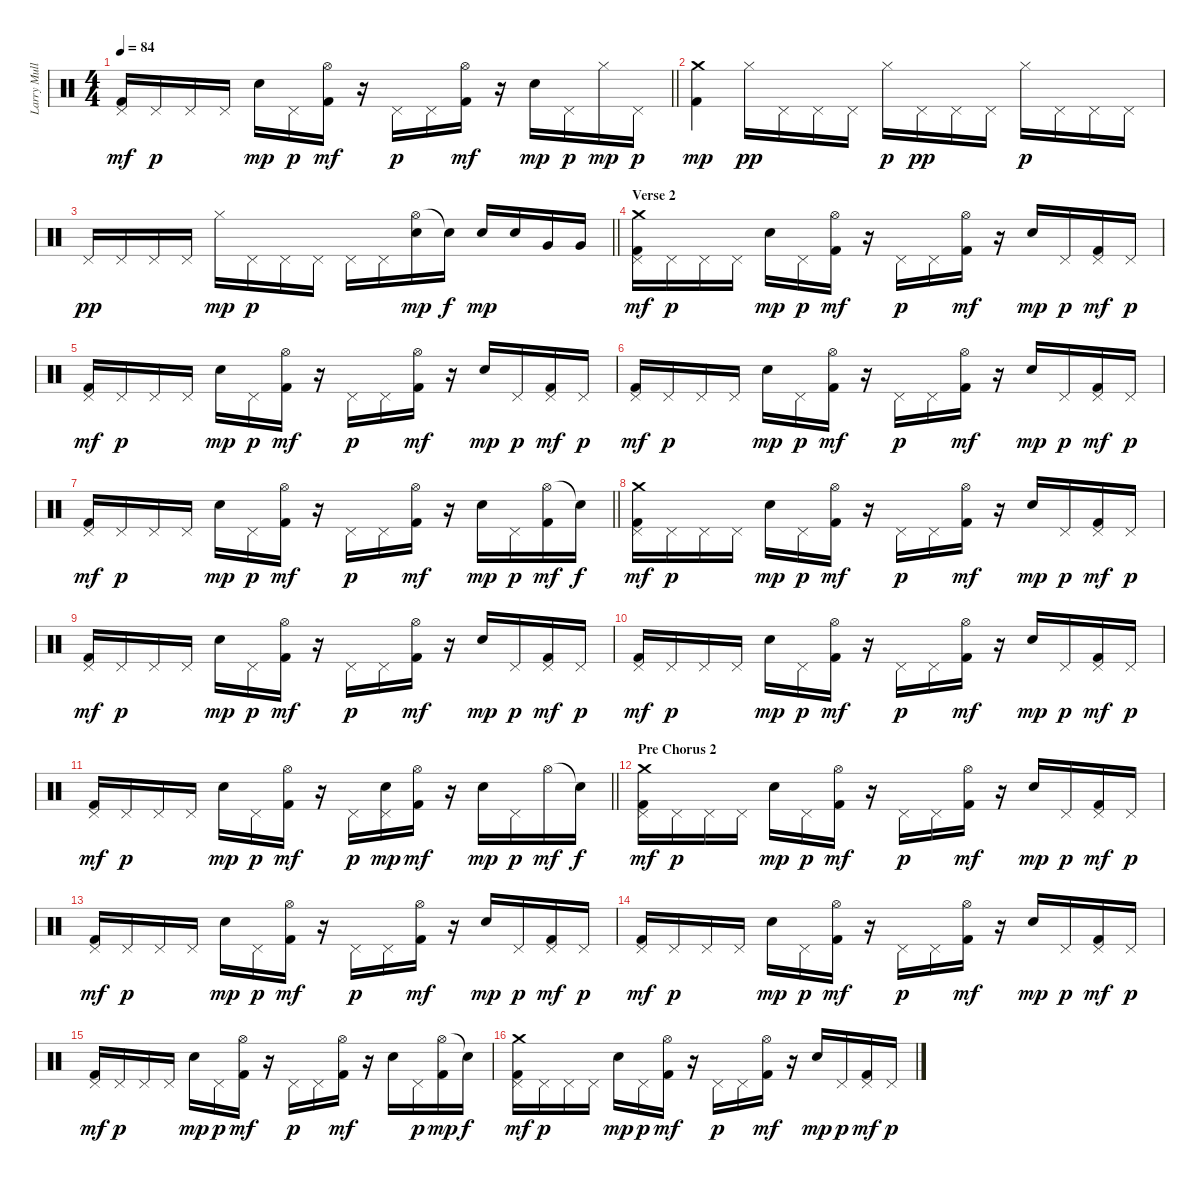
\track ("Larry Mullen Jr." "Larry Mull") {instrument percussion}
\staff {score}
\articulation defaults
\ts (4 4)
\tempo 84
\clef neutral
\barLineRight lightlight
\ks c
("Pedal Hi-Hat (hit)" "Kick (hit) 2").16{dy mf} "Pedal Hi-Hat (hit)".16{dy p} "Pedal Hi-Hat (hit)".16 "Pedal Hi-Hat (hit)".16 "Electric Snare (hit)".16{dy mp} "Pedal Hi-Hat (hit)".16{dy p} ("Hi-Hat (open)" "Kick (hit) 2").16{dy mf} r.16 "Pedal Hi-Hat (hit)".16{dy p} "Pedal Hi-Hat (hit)".16 ("Hi-Hat (open)" "Kick (hit) 2").16{dy mf} r.16 "Electric Snare (hit)".16{dy mp} "Pedal Hi-Hat (hit)".16{dy p} "Hi-Hat (closed)".16{dy mp} "Pedal Hi-Hat (hit)".16{dy p} |
("Crash medium (hit)" "Kick (hit) 2").4{dy mp} "Hi-Hat (closed)".16{dy pp} "Pedal Hi-Hat (hit)".16 "Pedal Hi-Hat (hit)".16 "Pedal Hi-Hat (hit)".16 "Hi-Hat (closed)".16{dy p} "Pedal Hi-Hat (hit)".16{dy pp} "Pedal Hi-Hat (hit)".16 "Pedal Hi-Hat (hit)".16 "Hi-Hat (closed)".16{dy p} "Pedal Hi-Hat (hit)".16 "Pedal Hi-Hat (hit)".16 "Pedal Hi-Hat (hit)".16 |
\barLineRight lightlight "Pedal Hi-Hat (hit)".16{dy pp} "Pedal Hi-Hat (hit)".16 "Pedal Hi-Hat (hit)".16 "Pedal Hi-Hat (hit)".16 "Hi-Hat (closed)".16{dy mp} "Pedal Hi-Hat (hit)".16{dy p} "Pedal Hi-Hat (hit)".16 "Pedal Hi-Hat (hit)".16 "Pedal Hi-Hat (hit)".16 "Pedal Hi-Hat (hit)".16
("Hi-Hat (open)" "Snare (hit) 2").16{dy mp} "Snare (hit)"{t}.16{dy f} "Electric Snare (hit)".16{dy mp} "Electric Snare (hit)".16 "Very Low Tom (hit)".16 "Very Low Tom (hit)".16 |
\section ("" "Verse 2")
("Pedal Hi-Hat (hit)" "Crash medium (hit)" "Kick (hit) 2").16{dy mf} "Pedal Hi-Hat (hit)".16{dy p} "Pedal Hi-Hat (hit)".16 "Pedal Hi-Hat (hit)".16 "Electric Snare (hit)".16{dy mp} "Pedal Hi-Hat (hit)".16{dy p} ("Hi-Hat (open)" "Kick (hit) 2").16{dy mf} r.16 "Pedal Hi-Hat (hit)".16{dy p} "Pedal Hi-Hat (hit)".16 ("Hi-Hat (open)" "Kick (hit) 2").16{dy mf} r.16 "Electric Snare (hit)".16{dy mp} "Pedal Hi-Hat (hit)".16{dy p} ("Pedal Hi-Hat (hit)" "Kick (hit) 2").16{dy mf} "Pedal Hi-Hat (hit)".16{dy p} |
("Pedal Hi-Hat (hit)" "Kick (hit) 2").16{dy mf} "Pedal Hi-Hat (hit)".16{dy p} "Pedal Hi-Hat (hit)".16 "Pedal Hi-Hat (hit)".16 "Electric Snare (hit)".16{dy mp} "Pedal Hi-Hat (hit)".16{dy p} ("Hi-Hat (open)" "Kick (hit) 2").16{dy mf} r.16 "Pedal Hi-Hat (hit)".16{dy p} "Pedal Hi-Hat (hit)".16 ("Hi-Hat (open)" "Kick (hit) 2").16{dy mf} r.16 "Electric Snare (hit)".16{dy mp} "Pedal Hi-Hat (hit)".16{dy p} ("Pedal Hi-Hat (hit)" "Kick (hit) 2").16{dy mf} "Pedal Hi-Hat (hit)".16{dy p} |
("Pedal Hi-Hat (hit)" "Kick (hit) 2").16{dy mf} "Pedal Hi-Hat (hit)".16{dy p} "Pedal Hi-Hat (hit)".16 "Pedal Hi-Hat (hit)".16 "Electric Snare (hit)".16{dy mp} "Pedal Hi-Hat (hit)".16{dy p} ("Hi-Hat (open)" "Kick (hit) 2").16{dy mf} r.16 "Pedal Hi-Hat (hit)".16{dy p} "Pedal Hi-Hat (hit)".16 ("Hi-Hat (open)" "Kick (hit) 2").16{dy mf} r.16 "Electric Snare (hit)".16{dy mp} "Pedal Hi-Hat (hit)".16{dy p} ("Pedal Hi-Hat (hit)" "Kick (hit) 2").16{dy mf} "Pedal Hi-Hat (hit)".16{dy p} |
\barLineRight lightlight
("Pedal Hi-Hat (hit)" "Kick (hit) 2").16{dy mf} "Pedal Hi-Hat (hit)".16{dy p} "Pedal Hi-Hat (hit)".16 "Pedal Hi-Hat (hit)".16 "Electric Snare (hit)".16{dy mp} "Pedal Hi-Hat (hit)".16{dy p} ("Hi-Hat (open)" "Kick (hit) 2").16{dy mf} r.16 "Pedal Hi-Hat (hit)".16{dy p} "Pedal Hi-Hat (hit)".16 ("Hi-Hat (open)" "Kick (hit) 2").16{dy mf} r.16 "Electric Snare (hit)".16{dy mp} "Pedal Hi-Hat (hit)".16{dy p} ("Hi-Hat (open)" "Kick (hit) 2").16{dy mf} "Snare (hit)"{t}.16{dy f} |
("Pedal Hi-Hat (hit)" "Crash medium (hit)" "Kick (hit) 2").16{dy mf} "Pedal Hi-Hat (hit)".16{dy p} "Pedal Hi-Hat (hit)".16 "Pedal Hi-Hat (hit)".16 "Electric Snare (hit)".16{dy mp} "Pedal Hi-Hat (hit)".16{dy p} ("Hi-Hat (open)" "Kick (hit) 2").16{dy mf} r.16 "Pedal Hi-Hat (hit)".16{dy p} "Pedal Hi-Hat (hit)".16 ("Hi-Hat (open)" "Kick (hit) 2").16{dy mf} r.16 "Electric Snare (hit)".16{dy mp} "Pedal Hi-Hat (hit)".16{dy p} ("Pedal Hi-Hat (hit)" "Kick (hit) 2").16{dy mf} "Pedal Hi-Hat (hit)".16{dy p} |
("Pedal Hi-Hat (hit)" "Kick (hit) 2").16{dy mf} "Pedal Hi-Hat (hit)".16{dy p} "Pedal Hi-Hat (hit)".16 "Pedal Hi-Hat (hit)".16 "Electric Snare (hit)".16{dy mp} "Pedal Hi-Hat (hit)".16{dy p} ("Hi-Hat (open)" "Kick (hit) 2").16{dy mf} r.16 "Pedal Hi-Hat (hit)".16{dy p} "Pedal Hi-Hat (hit)".16 ("Hi-Hat (open)" "Kick (hit) 2").16{dy mf} r.16 "Electric Snare (hit)".16{dy mp} "Pedal Hi-Hat (hit)".16{dy p} ("Pedal Hi-Hat (hit)" "Kick (hit) 2").16{dy mf} "Pedal Hi-Hat (hit)".16{dy p} |
("Pedal Hi-Hat (hit)" "Kick (hit) 2").16{dy mf} "Pedal Hi-Hat (hit)".16{dy p} "Pedal Hi-Hat (hit)".16 "Pedal Hi-Hat (hit)".16 "Electric Snare (hit)".16{dy mp} "Pedal Hi-Hat (hit)".16{dy p} ("Hi-Hat (open)" "Kick (hit) 2").16{dy mf} r.16 "Pedal Hi-Hat (hit)".16{dy p} "Pedal Hi-Hat (hit)".16 ("Hi-Hat (open)" "Kick (hit) 2").16{dy mf} r.16 "Electric Snare (hit)".16{dy mp} "Pedal Hi-Hat (hit)".16{dy p} ("Pedal Hi-Hat (hit)" "Kick (hit) 2").16{dy mf} "Pedal Hi-Hat (hit)".16{dy p} |
\barLineRight lightlight
("Pedal Hi-Hat (hit)" "Kick (hit) 2").16{dy mf} "Pedal Hi-Hat (hit)".16{dy p} "Pedal Hi-Hat (hit)".16 "Pedal Hi-Hat (hit)".16 "Electric Snare (hit)".16{dy mp} "Pedal Hi-Hat (hit)".16{dy p} ("Hi-Hat (open)" "Kick (hit) 2").16{dy mf} r.16 "Pedal Hi-Hat (hit)".16{dy p} ("Pedal Hi-Hat (hit)" "Electric Snare (hit)").16{dy mp} ("Hi-Hat (open)" "Kick (hit) 2").16{dy mf} r.16 "Electric Snare (hit)".16{dy mp} "Pedal Hi-Hat (hit)".16{dy p} "Hi-Hat (open)".16{dy mf} "Snare (hit)"{t}.16{dy f} |
\section ("" "Pre Chorus 2")
("Pedal Hi-Hat (hit)" "Crash medium (hit)" "Kick (hit) 2").16{dy mf} "Pedal Hi-Hat (hit)".16{dy p} "Pedal Hi-Hat (hit)".16 "Pedal Hi-Hat (hit)".16 "Electric Snare (hit)".16{dy mp} "Pedal Hi-Hat (hit)".16{dy p} ("Hi-Hat (open)" "Kick (hit) 2").16{dy mf} r.16 "Pedal Hi-Hat (hit)".16{dy p} "Pedal Hi-Hat (hit)".16 ("Hi-Hat (open)" "Kick (hit) 2").16{dy mf} r.16 "Electric Snare (hit)".16{dy mp} "Pedal Hi-Hat (hit)".16{dy p} ("Pedal Hi-Hat (hit)" "Kick (hit) 2").16{dy mf} "Pedal Hi-Hat (hit)".16{dy p} |
("Pedal Hi-Hat (hit)" "Kick (hit) 2").16{dy mf} "Pedal Hi-Hat (hit)".16{dy p} "Pedal Hi-Hat (hit)".16 "Pedal Hi-Hat (hit)".16 "Electric Snare (hit)".16{dy mp} "Pedal Hi-Hat (hit)".16{dy p} ("Hi-Hat (open)" "Kick (hit) 2").16{dy mf} r.16 "Pedal Hi-Hat (hit)".16{dy p} "Pedal Hi-Hat (hit)".16 ("Hi-Hat (open)" "Kick (hit) 2").16{dy mf} r.16 "Electric Snare (hit)".16{dy mp} "Pedal Hi-Hat (hit)".16{dy p} ("Pedal Hi-Hat (hit)" "Kick (hit) 2").16{dy mf} "Pedal Hi-Hat (hit)".16{dy p} |
("Pedal Hi-Hat (hit)" "Kick (hit) 2").16{dy mf} "Pedal Hi-Hat (hit)".16{dy p} "Pedal Hi-Hat (hit)".16 "Pedal Hi-Hat (hit)".16 "Electric Snare (hit)".16{dy mp} "Pedal Hi-Hat (hit)".16{dy p} ("Hi-Hat (open)" "Kick (hit) 2").16{dy mf} r.16 "Pedal Hi-Hat (hit)".16{dy p} "Pedal Hi-Hat (hit)".16 ("Hi-Hat (open)" "Kick (hit) 2").16{dy mf} r.16 "Electric Snare (hit)".16{dy mp} "Pedal Hi-Hat (hit)".16{dy p} ("Pedal Hi-Hat (hit)" "Kick (hit) 2").16{dy mf} "Pedal Hi-Hat (hit)".16{dy p} |
("Pedal Hi-Hat (hit)" "Kick (hit) 2").16{dy mf} "Pedal Hi-Hat (hit)".16{dy p} "Pedal Hi-Hat (hit)".16 "Pedal Hi-Hat (hit)".16 "Electric Snare (hit)".16{dy mp} "Pedal Hi-Hat (hit)".16{dy p} ("Hi-Hat (open)" "Kick (hit) 2").16{dy mf} r.16 "Pedal Hi-Hat (hit)".16{dy p} "Pedal Hi-Hat (hit)".16 ("Hi-Hat (open)" "Kick (hit) 2").16{dy mf} r.16 "Electric Snare (hit)".16 "Pedal Hi-Hat (hit)".16{dy p} ("Hi-Hat (open)" "Kick (hit) 2").16{dy mp} "Snare (hit)"{t}.16{dy f} |
("Pedal Hi-Hat (hit)" "Crash medium (hit)" "Kick (hit) 2").16{dy mf} "Pedal Hi-Hat (hit)".16{dy p} "Pedal Hi-Hat (hit)".16 "Pedal Hi-Hat (hit)".16 "Electric Snare (hit)".16{dy mp} "Pedal Hi-Hat (hit)".16{dy p} ("Hi-Hat (open)" "Kick (hit) 2").16{dy mf} r.16 "Pedal Hi-Hat (hit)".16{dy p} "Pedal Hi-Hat (hit)".16 ("Hi-Hat (open)" "Kick (hit) 2").16{dy mf} r.16 "Electric Snare (hit)".16{dy mp} "Pedal Hi-Hat (hit)".16{dy p} ("Pedal Hi-Hat (hit)" "Kick (hit) 2").16{dy mf} "Pedal Hi-Hat (hit)".16{dy p}
